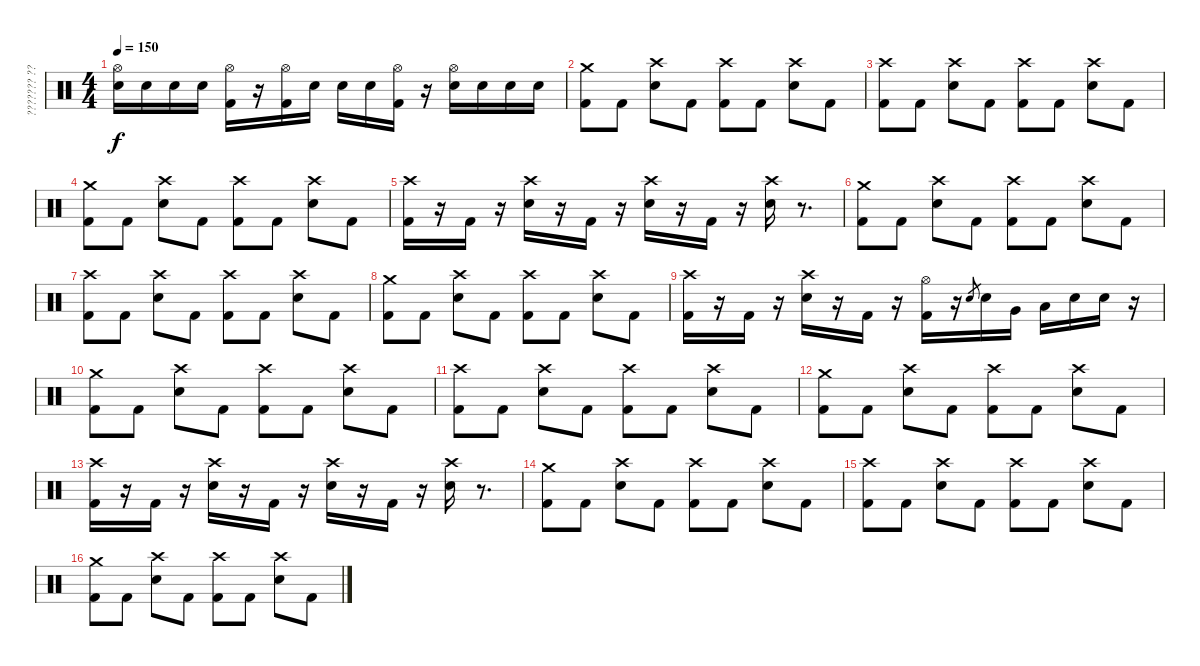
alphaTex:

\track ("??????? ?????????" "??????? ??") {instrument percussion}
\staff {score}
\articulation defaults
\ts (4 4)
\tempo 150
\clef neutral
\ks c
("Hi-Hat (open)" "Electric Snare (hit)").16{dy f} "Electric Snare (hit)".16 "Electric Snare (hit)".16 "Electric Snare (hit)".16 ("Hi-Hat (open)" "Kick (hit) 2").16 r.16 ("Hi-Hat (open)" "Kick (hit) 2").16 "Electric Snare (hit)".16 "Electric Snare (hit)".16 "Electric Snare (hit)".16 ("Hi-Hat (open)" "Kick (hit) 2").16 r.16 ("Hi-Hat (open)" "Electric Snare (hit)").16 "Electric Snare (hit)".16 "Electric Snare (hit)".16 "Electric Snare (hit)".16 |
("Crash medium (hit)" "Kick (hit) 2").8 "Kick (hit) 2".8 ("Crash high (hit)" "Electric Snare (hit)").8 "Kick (hit) 2".8 ("Crash high (hit)" "Kick (hit) 2").8 "Kick (hit) 2".8 ("Crash high (hit)" "Electric Snare (hit)").8 "Kick (hit) 2".8 |
("Crash high (hit)" "Kick (hit) 2").8 "Kick (hit) 2".8 ("Crash high (hit)" "Electric Snare (hit)").8 "Kick (hit) 2".8 ("Crash high (hit)" "Kick (hit) 2").8 "Kick (hit) 2".8 ("Crash high (hit)" "Electric Snare (hit)").8 "Kick (hit) 2".8 |
("Crash medium (hit)" "Kick (hit) 2").8 "Kick (hit) 2".8 ("Crash high (hit)" "Electric Snare (hit)").8 "Kick (hit) 2".8 ("Crash high (hit)" "Kick (hit) 2").8 "Kick (hit) 2".8 ("Crash high (hit)" "Electric Snare (hit)").8 "Kick (hit) 2".8 |
("Crash high (hit)" "Kick (hit) 2").16 r.16 "Kick (hit) 2".16 r.16 ("Crash high (hit)" "Electric Snare (hit)").16 r.16 "Kick (hit) 2".16 r.16 ("Crash high (hit)" "Electric Snare (hit)").16 r.16 "Kick (hit) 2".16 r.16 ("Crash high (hit)" "Electric Snare (hit)").16 r.8{d} |
("Crash medium (hit)" "Kick (hit) 2").8 "Kick (hit) 2".8 ("Crash high (hit)" "Electric Snare (hit)").8 "Kick (hit) 2".8 ("Crash high (hit)" "Kick (hit) 2").8 "Kick (hit) 2".8 ("Crash high (hit)" "Electric Snare (hit)").8 "Kick (hit) 2".8 |
("Crash high (hit)" "Kick (hit) 2").8 "Kick (hit) 2".8 ("Crash high (hit)" "Electric Snare (hit)").8 "Kick (hit) 2".8 ("Crash high (hit)" "Kick (hit) 2").8 "Kick (hit) 2".8 ("Crash high (hit)" "Electric Snare (hit)").8 "Kick (hit) 2".8 |
("Crash medium (hit)" "Kick (hit) 2").8 "Kick (hit) 2".8 ("Crash high (hit)" "Electric Snare (hit)").8 "Kick (hit) 2".8 ("Crash high (hit)" "Kick (hit) 2").8 "Kick (hit) 2".8 ("Crash high (hit)" "Electric Snare (hit)").8 "Kick (hit) 2".8 |
("Crash high (hit)" "Kick (hit) 2").16 r.16 "Kick (hit) 2".16 r.16 ("Crash high (hit)" "Electric Snare (hit)").16 r.16 "Kick (hit) 2".16 r.16 ("Hi-Hat (open)" "Kick (hit) 2").16 r.16 "Electric Snare (hit)".8{gr} "Electric Snare (hit)".16 "Very Low Tom (hit)".16 "Low Tom (hit)".16 "Electric Snare (hit)".16 "Electric Snare (hit)".16 r.16 |
("Crash medium (hit)" "Kick (hit) 2").8 "Kick (hit) 2".8 ("Crash high (hit)" "Electric Snare (hit)").8 "Kick (hit) 2".8 ("Crash high (hit)" "Kick (hit) 2").8 "Kick (hit) 2".8 ("Crash high (hit)" "Electric Snare (hit)").8 "Kick (hit) 2".8 |
("Crash high (hit)" "Kick (hit) 2").8 "Kick (hit) 2".8 ("Crash high (hit)" "Electric Snare (hit)").8 "Kick (hit) 2".8 ("Crash high (hit)" "Kick (hit) 2").8 "Kick (hit) 2".8 ("Crash high (hit)" "Electric Snare (hit)").8 "Kick (hit) 2".8 |
("Crash medium (hit)" "Kick (hit) 2").8 "Kick (hit) 2".8 ("Crash high (hit)" "Electric Snare (hit)").8 "Kick (hit) 2".8 ("Crash high (hit)" "Kick (hit) 2").8 "Kick (hit) 2".8 ("Crash high (hit)" "Electric Snare (hit)").8 "Kick (hit) 2".8 |
("Crash high (hit)" "Kick (hit) 2").16 r.16 "Kick (hit) 2".16 r.16 ("Crash high (hit)" "Electric Snare (hit)").16 r.16 "Kick (hit) 2".16 r.16 ("Crash high (hit)" "Electric Snare (hit)").16 r.16 "Kick (hit) 2".16 r.16 ("Crash high (hit)" "Electric Snare (hit)").16 r.8{d} |
("Crash medium (hit)" "Kick (hit) 2").8 "Kick (hit) 2".8 ("Crash high (hit)" "Electric Snare (hit)").8 "Kick (hit) 2".8 ("Crash high (hit)" "Kick (hit) 2").8 "Kick (hit) 2".8 ("Crash high (hit)" "Electric Snare (hit)").8 "Kick (hit) 2".8 |
("Crash high (hit)" "Kick (hit) 2").8 "Kick (hit) 2".8 ("Crash high (hit)" "Electric Snare (hit)").8 "Kick (hit) 2".8 ("Crash high (hit)" "Kick (hit) 2").8 "Kick (hit) 2".8 ("Crash high (hit)" "Electric Snare (hit)").8 "Kick (hit) 2".8 |
("Crash medium (hit)" "Kick (hit) 2").8 "Kick (hit) 2".8 ("Crash high (hit)" "Electric Snare (hit)").8 "Kick (hit) 2".8 ("Crash high (hit)" "Kick (hit) 2").8 "Kick (hit) 2".8 ("Crash high (hit)" "Electric Snare (hit)").8 "Kick (hit) 2".8
